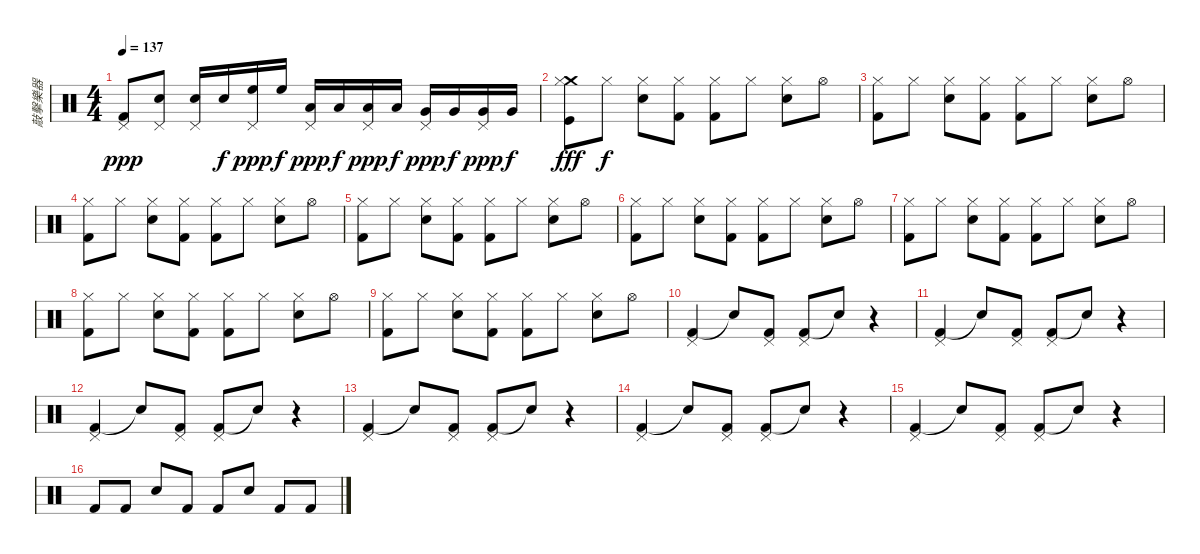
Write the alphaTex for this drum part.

\track ("敲擊樂器" "敲擊樂器") {instrument percussion}
\staff {score}
\articulation defaults
\ts (4 4)
\tempo 137
\clef neutral
\ks c
("Kick (hit) 2" "Pedal Hi-Hat (hit)").8{dy ppp} ("Snare (hit) 2" "Pedal Hi-Hat (hit)").8 ("Snare (hit) 2" "Pedal Hi-Hat (hit)").16 "Snare (hit) 2".16{dy f} ("High Floor Tom (hit)" "Pedal Hi-Hat (hit)").16{dy ppp} "High Floor Tom (hit)".16{dy f} ("Low Tom (hit)" "Pedal Hi-Hat (hit)").16{dy ppp} "Low Tom (hit)".16{dy f} ("Low Tom (hit)" "Pedal Hi-Hat (hit)").16{dy ppp} "Low Tom (hit)".16{dy f} ("Very Low Tom (hit)" "Pedal Hi-Hat (hit)").16{dy ppp} "Very Low Tom (hit)".16{dy f} ("Very Low Tom (hit)" "Pedal Hi-Hat (hit)").16{dy ppp} "Very Low Tom (hit)".16{dy f} |
("Crash medium (hit)" "Kick (hit)" "Hi-Hat (closed)").8{dy fff} "Hi-Hat (closed)".8{dy f} ("Snare (hit) 2" "Hi-Hat (closed)").8 ("Kick (hit) 2" "Hi-Hat (closed)").8 ("Kick (hit) 2" "Hi-Hat (closed)").8 "Hi-Hat (closed)".8 ("Snare (hit) 2" "Hi-Hat (closed)").8 "Hi-Hat (open)".8 |
("Kick (hit) 2" "Hi-Hat (closed)").8 "Hi-Hat (closed)".8 ("Snare (hit) 2" "Hi-Hat (closed)").8 ("Kick (hit) 2" "Hi-Hat (closed)").8 ("Kick (hit) 2" "Hi-Hat (closed)").8 "Hi-Hat (closed)".8 ("Snare (hit) 2" "Hi-Hat (closed)").8 "Hi-Hat (open)".8 |
("Kick (hit) 2" "Hi-Hat (closed)").8 "Hi-Hat (closed)".8 ("Snare (hit) 2" "Hi-Hat (closed)").8 ("Kick (hit) 2" "Hi-Hat (closed)").8 ("Kick (hit) 2" "Hi-Hat (closed)").8 "Hi-Hat (closed)".8 ("Snare (hit) 2" "Hi-Hat (closed)").8 "Hi-Hat (open)".8 |
("Kick (hit) 2" "Hi-Hat (closed)").8 "Hi-Hat (closed)".8 ("Snare (hit) 2" "Hi-Hat (closed)").8 ("Kick (hit) 2" "Hi-Hat (closed)").8 ("Kick (hit) 2" "Hi-Hat (closed)").8 "Hi-Hat (closed)".8 ("Snare (hit) 2" "Hi-Hat (closed)").8 "Hi-Hat (open)".8 |
("Kick (hit) 2" "Hi-Hat (closed)").8 "Hi-Hat (closed)".8 ("Snare (hit) 2" "Hi-Hat (closed)").8 ("Kick (hit) 2" "Hi-Hat (closed)").8 ("Kick (hit) 2" "Hi-Hat (closed)").8 "Hi-Hat (closed)".8 ("Snare (hit) 2" "Hi-Hat (closed)").8 "Hi-Hat (open)".8 |
("Kick (hit) 2" "Hi-Hat (closed)").8 "Hi-Hat (closed)".8 ("Snare (hit) 2" "Hi-Hat (closed)").8 ("Kick (hit) 2" "Hi-Hat (closed)").8 ("Kick (hit) 2" "Hi-Hat (closed)").8 "Hi-Hat (closed)".8 ("Snare (hit) 2" "Hi-Hat (closed)").8 "Hi-Hat (open)".8 |
("Kick (hit) 2" "Hi-Hat (closed)").8 "Hi-Hat (closed)".8 ("Snare (hit) 2" "Hi-Hat (closed)").8 ("Kick (hit) 2" "Hi-Hat (closed)").8 ("Kick (hit) 2" "Hi-Hat (closed)").8 "Hi-Hat (closed)".8 ("Snare (hit) 2" "Hi-Hat (closed)").8 "Hi-Hat (open)".8 |
("Kick (hit) 2" "Hi-Hat (closed)").8 "Hi-Hat (closed)".8 ("Snare (hit) 2" "Hi-Hat (closed)").8 ("Kick (hit) 2" "Hi-Hat (closed)").8 ("Kick (hit) 2" "Hi-Hat (closed)").8 "Hi-Hat (closed)".8 ("Snare (hit) 2" "Hi-Hat (closed)").8 "Hi-Hat (open)".8 |
("Kick (hit) 2" "Pedal Hi-Hat (hit)").4 "Snare (hit)"{t}.8 ("Kick (hit) 2" "Pedal Hi-Hat (hit)").8 ("Kick (hit) 2" "Pedal Hi-Hat (hit)").8 "Snare (hit)"{t}.8 r.4 |
("Kick (hit) 2" "Pedal Hi-Hat (hit)").4 "Snare (hit)"{t}.8 ("Kick (hit) 2" "Pedal Hi-Hat (hit)").8 ("Kick (hit) 2" "Pedal Hi-Hat (hit)").8 "Snare (hit)"{t}.8 r.4 |
("Kick (hit) 2" "Pedal Hi-Hat (hit)").4 "Snare (hit)"{t}.8 ("Kick (hit) 2" "Pedal Hi-Hat (hit)").8 ("Kick (hit) 2" "Pedal Hi-Hat (hit)").8 "Snare (hit)"{t}.8 r.4 |
("Kick (hit) 2" "Pedal Hi-Hat (hit)").4 "Snare (hit)"{t}.8 ("Kick (hit) 2" "Pedal Hi-Hat (hit)").8 ("Kick (hit) 2" "Pedal Hi-Hat (hit)").8 "Snare (hit)"{t}.8 r.4 |
("Kick (hit) 2" "Pedal Hi-Hat (hit)").4 "Snare (hit)"{t}.8 ("Kick (hit) 2" "Pedal Hi-Hat (hit)").8 ("Kick (hit) 2" "Pedal Hi-Hat (hit)").8 "Snare (hit)"{t}.8 r.4 |
("Kick (hit) 2" "Pedal Hi-Hat (hit)").4 "Snare (hit)"{t}.8 ("Kick (hit) 2" "Pedal Hi-Hat (hit)").8 ("Kick (hit) 2" "Pedal Hi-Hat (hit)").8 "Snare (hit)"{t}.8 r.4 |
"Kick (hit) 2".8 "Kick (hit) 2".8 "Snare (hit) 2".8 "Kick (hit) 2".8 "Kick (hit) 2".8 "Snare (hit) 2".8 "Kick (hit) 2".8 "Kick (hit) 2".8
